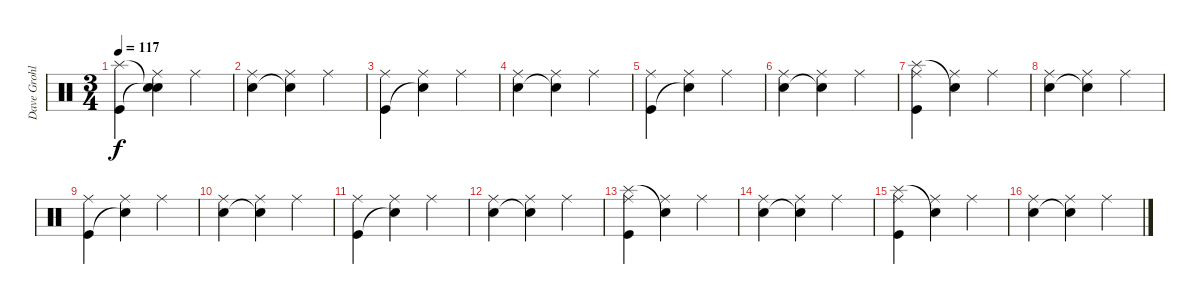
\track ("Dave Grohl" "Dave Grohl") {instrument percussion}
\staff {score}
\articulation defaults
\ts (3 4)
\tempo 117
\clef neutral
\ks c
("Splash (hit)" "Kick (hit)").4{dy f} ("Snare (hit)"{t} "Snare (hit)"{t} "Ride (middle)").4 "Ride (middle)".4 |
("Electric Snare (hit)" "Ride (middle)").4 ("Snare (hit)"{t} "Ride (middle)").4 "Ride (middle)".4 |
("Kick (hit)" "Ride (middle)").4 ("Snare (hit)"{t} "Ride (middle)").4 "Ride (middle)".4 |
("Electric Snare (hit)" "Ride (middle)").4 ("Snare (hit)"{t} "Ride (middle)").4 "Ride (middle)".4 |
("Kick (hit)" "Ride (middle)").4 ("Snare (hit)"{t} "Ride (middle)").4 "Ride (middle)".4 |
("Electric Snare (hit)" "Ride (middle)").4 ("Snare (hit)"{t} "Ride (middle)").4 "Ride (middle)".4 |
("Splash (hit)" "Kick (hit)" "Ride (middle)").4 ("Snare (hit)"{t} "Ride (middle)").4 "Ride (middle)".4 |
("Electric Snare (hit)" "Ride (middle)").4 ("Snare (hit)"{t} "Ride (middle)").4 "Ride (middle)".4 |
("Kick (hit)" "Ride (middle)").4 ("Snare (hit)"{t} "Ride (middle)").4 "Ride (middle)".4 |
("Electric Snare (hit)" "Ride (middle)").4 ("Snare (hit)"{t} "Ride (middle)").4 "Ride (middle)".4 |
("Kick (hit)" "Ride (middle)").4 ("Snare (hit)"{t} "Ride (middle)").4 "Ride (middle)".4 |
("Electric Snare (hit)" "Ride (middle)").4 ("Snare (hit)"{t} "Ride (middle)").4 "Ride (middle)".4 |
("Splash (hit)" "Kick (hit)" "Ride (middle)").4 ("Snare (hit)"{t} "Ride (middle)").4 "Ride (middle)".4 |
("Electric Snare (hit)" "Ride (middle)").4 ("Snare (hit)"{t} "Ride (middle)").4 "Ride (middle)".4 |
("Splash (hit)" "Kick (hit)" "Ride (middle)").4 ("Snare (hit)"{t} "Ride (middle)").4 "Ride (middle)".4 |
("Electric Snare (hit)" "Ride (middle)").4 ("Snare (hit)"{t} "Ride (middle)").4 "Ride (middle)".4
